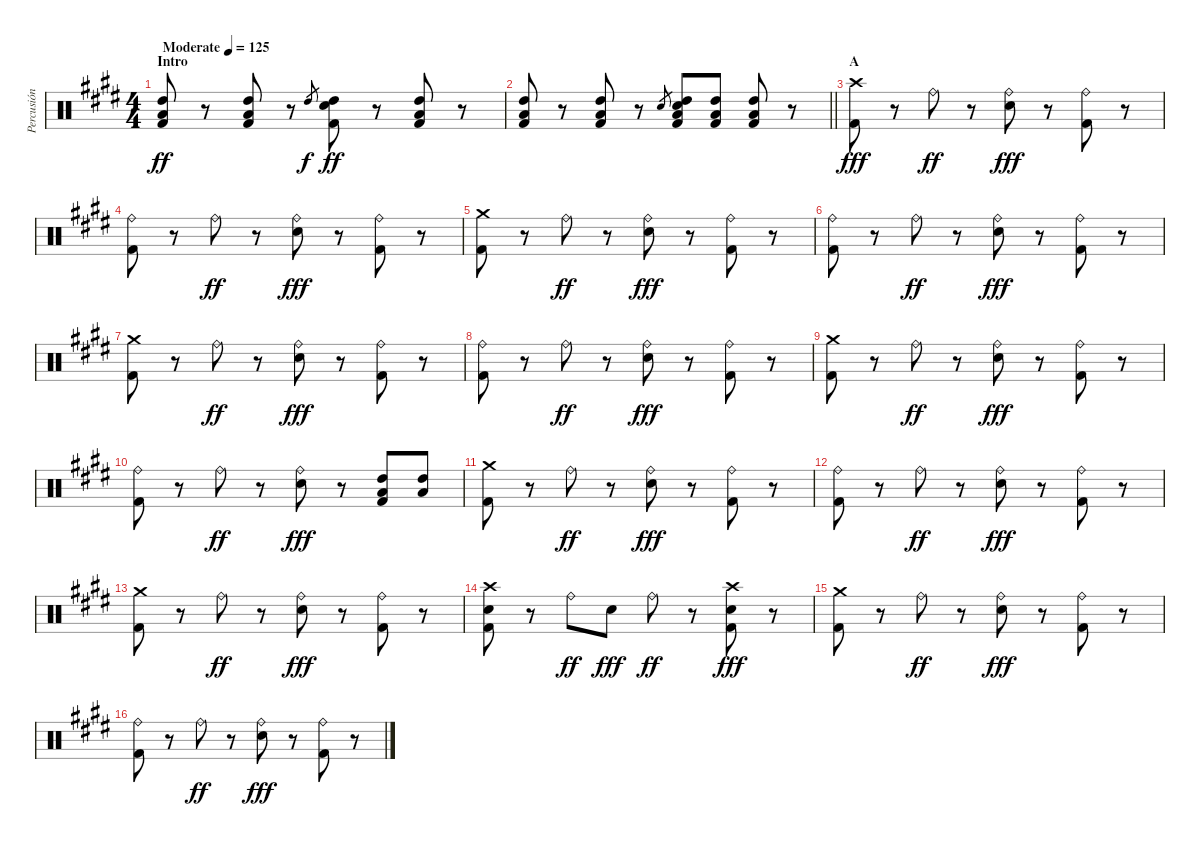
\track ("Percusión" "Percusión") {instrument percussion}
\staff {score}
\articulation defaults
\ts (4 4)
\section ("" "Intro")
\tempo (125 "Moderate")
\clef neutral
\ks e
("Low Tom (hit)" "High Tom (hit)" "Kick (hit) 2").8{dy ff} r.8 ("Low Tom (hit)" "High Tom (hit)" "Kick (hit) 2").8 r.8 "High Tom (hit)".8{gr dy f} ("Electric Snare (hit)" "High Tom (hit)" "Kick (hit) 2").8{dy ff} r.8 ("Low Tom (hit)" "High Tom (hit)" "Kick (hit) 2").8 r.8 |
\barLineRight lightlight
("Low Tom (hit)" "High Tom (hit)" "Kick (hit) 2").8 r.8 ("Low Tom (hit)" "High Tom (hit)" "Kick (hit) 2").8 r.8 "Electric Snare (hit)".8{gr} ("Electric Snare (hit)" "Low Tom (hit)" "High Tom (hit)" "Kick (hit) 2").8 ("Low Tom (hit)" "High Tom (hit)" "Kick (hit) 2").8 ("Low Tom (hit)" "High Tom (hit)" "Kick (hit) 2").8 r.8 |
\section ("" "A")
("Crash high (hit)" "Kick (hit) 2").8{dy fff} r.8 "Ride (bell)".8{dy ff} r.8 ("Ride (bell)" "Electric Snare (hit)").8{dy fff} r.8 ("Ride (bell)" "Kick (hit) 2").8 r.8 |
("Ride (bell)" "Kick (hit) 2").8 r.8 "Ride (bell)".8{dy ff} r.8 ("Ride (bell)" "Electric Snare (hit)").8{dy fff} r.8 ("Ride (bell)" "Kick (hit) 2").8 r.8 |
("Crash medium (hit)" "Kick (hit) 2").8 r.8 "Ride (bell)".8{dy ff} r.8 ("Ride (bell)" "Electric Snare (hit)").8{dy fff} r.8 ("Ride (bell)" "Kick (hit) 2").8 r.8 |
("Ride (bell)" "Kick (hit) 2").8 r.8 "Ride (bell)".8{dy ff} r.8 ("Ride (bell)" "Electric Snare (hit)").8{dy fff} r.8 ("Ride (bell)" "Kick (hit) 2").8 r.8 |
("Crash medium (hit)" "Kick (hit) 2").8 r.8 "Ride (bell)".8{dy ff} r.8 ("Ride (bell)" "Electric Snare (hit)").8{dy fff} r.8 ("Ride (bell)" "Kick (hit) 2").8 r.8 |
("Ride (bell)" "Kick (hit) 2").8 r.8 "Ride (bell)".8{dy ff} r.8 ("Ride (bell)" "Electric Snare (hit)").8{dy fff} r.8 ("Ride (bell)" "Kick (hit) 2").8 r.8 |
("Crash medium (hit)" "Kick (hit) 2").8 r.8 "Ride (bell)".8{dy ff} r.8 ("Ride (bell)" "Electric Snare (hit)").8{dy fff} r.8 ("Ride (bell)" "Kick (hit) 2").8 r.8 |
("Ride (bell)" "Kick (hit) 2").8 r.8 "Ride (bell)".8{dy ff} r.8 ("Ride (bell)" "Electric Snare (hit)").8{dy fff} r.8 ("High Tom (hit)" "Low Tom (hit)" "Kick (hit) 2").8 ("High Tom (hit)" "Low Tom (hit)").8 |
("Crash medium (hit)" "Kick (hit) 2").8 r.8 "Ride (bell)".8{dy ff} r.8 ("Ride (bell)" "Electric Snare (hit)").8{dy fff} r.8 ("Ride (bell)" "Kick (hit) 2").8 r.8 |
("Ride (bell)" "Kick (hit) 2").8 r.8 "Ride (bell)".8{dy ff} r.8 ("Ride (bell)" "Electric Snare (hit)").8{dy fff} r.8 ("Ride (bell)" "Kick (hit) 2").8 r.8 |
("Crash medium (hit)" "Kick (hit) 2").8 r.8 "Ride (bell)".8{dy ff} r.8 ("Ride (bell)" "Electric Snare (hit)").8{dy fff} r.8 ("Ride (bell)" "Kick (hit) 2").8 r.8 |
("Crash high (hit)" "Electric Snare (hit)" "Kick (hit) 2").8 r.8 "Ride (bell)".8{dy ff} "Electric Snare (hit)".8{dy fff} "Ride (bell)".8{dy ff} r.8 ("Crash high (hit)" "Electric Snare (hit)" "Kick (hit) 2").8{dy fff} r.8 |
("Crash medium (hit)" "Kick (hit) 2").8 r.8 "Ride (bell)".8{dy ff} r.8 ("Ride (bell)" "Electric Snare (hit)").8{dy fff} r.8 ("Ride (bell)" "Kick (hit) 2").8 r.8 |
("Ride (bell)" "Kick (hit) 2").8 r.8 "Ride (bell)".8{dy ff} r.8 ("Ride (bell)" "Electric Snare (hit)").8{dy fff} r.8 ("Ride (bell)" "Kick (hit) 2").8 r.8
